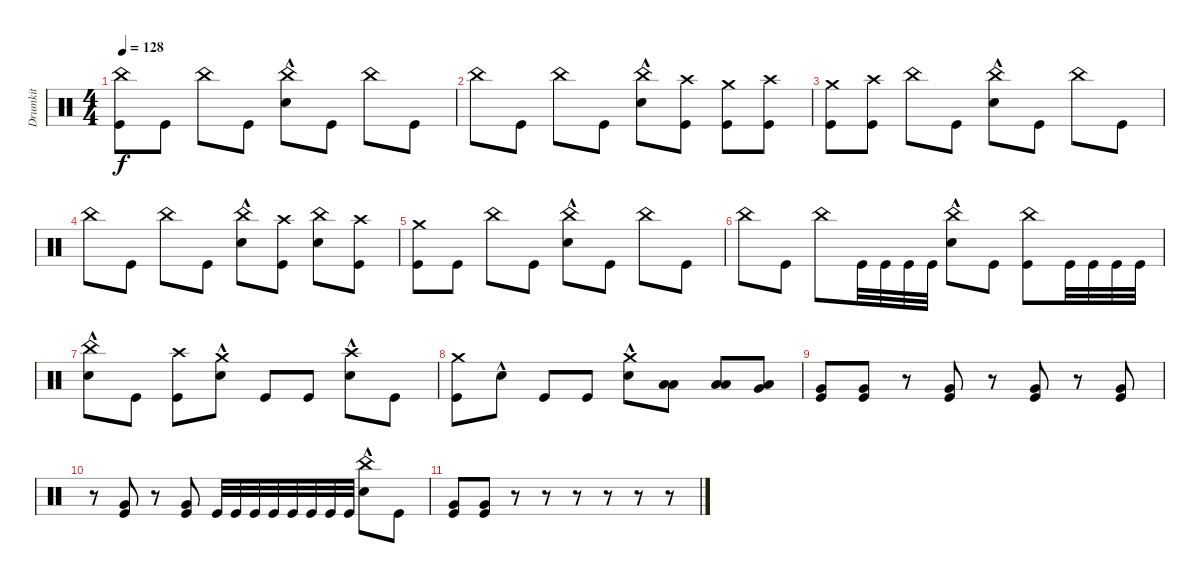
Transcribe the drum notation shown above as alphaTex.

\track ("Drumkit" "Drumkit") {instrument percussion}
\staff {score}
\articulation defaults
\ts (4 4)
\tempo 128
\clef neutral
\ks c
("Kick (hit)" "China (hit)").8{dy f} "Kick (hit)".8 "China (hit)".8 "Kick (hit)".8 ("China (hit)" "Snare (hit) 2"{hac}).8 "Kick (hit)".8 "China (hit)".8 "Kick (hit)".8 |
"China (hit)".8 "Kick (hit)".8 "China (hit)".8 "Kick (hit)".8 ("China (hit)" "Snare (hit) 2"{hac}).8 ("Kick (hit)" "Crash high (hit)").8 ("Kick (hit)" "Crash medium (hit)").8 ("Kick (hit)" "Crash high (hit)").8 |
("Crash medium (hit)" "Kick (hit)").8 ("Kick (hit)" "Crash high (hit)").8 "China (hit)".8 "Kick (hit)".8 ("China (hit)" "Snare (hit) 2"{hac}).8 "Kick (hit)".8 "China (hit)".8 "Kick (hit)".8 |
"China (hit)".8 "Kick (hit)".8 "China (hit)".8 "Kick (hit)".8 ("China (hit)" "Snare (hit) 2"{hac}).8 ("Kick (hit)" "Crash high (hit)").8 ("Snare (hit) 2" "China (hit)").8 ("Kick (hit)" "Crash high (hit)").8 |
("Kick (hit)" "Crash medium (hit)").8 "Kick (hit)".8 "China (hit)".8 "Kick (hit)".8 ("China (hit)" "Snare (hit) 2"{hac}).8 "Kick (hit)".8 "China (hit)".8 "Kick (hit)".8 |
"China (hit)".8 "Kick (hit)".8 "China (hit)".8 "Kick (hit)".32 "Kick (hit)".32 "Kick (hit)".32 "Kick (hit)".32 ("Snare (hit) 2"{hac} "China (hit)").8 "Kick (hit)".8 ("Kick (hit)" "China (hit)").8 "Kick (hit)".32 "Kick (hit)".32 "Kick (hit)".32 "Kick (hit)".32 |
("China (hit)" "Snare (hit) 2"{hac}).8 "Kick (hit)".8 ("Kick (hit)" "Crash high (hit)").8 ("Snare (hit) 2"{hac} "Crash medium (hit)").8 "Kick (hit)".8 "Kick (hit)".8 ("Snare (hit) 2"{hac} "Crash high (hit)").8 "Kick (hit)".8 |
("Kick (hit)" "Crash medium (hit)").8 "Snare (hit) 2"{hac}.8 "Kick (hit)".8 "Kick (hit)".8 ("Snare (hit) 2"{hac} "Crash medium (hit)").8 ("Low Floor Tom (hit)" "Low Tom (hit)").8 ("Low Floor Tom (hit)" "Low Tom (hit)").8 ("Low Floor Tom (hit)" "Very Low Tom (hit)").8 |
("Kick (hit)" "Very Low Tom (hit)").8 ("Kick (hit)" "Very Low Tom (hit)").8 r.8 ("Kick (hit)" "Very Low Tom (hit)").8 r.8 ("Kick (hit)" "Very Low Tom (hit)").8 r.8 ("Kick (hit)" "Very Low Tom (hit)").8 |
r.8 ("Kick (hit)" "Very Low Tom (hit)").8 r.8 ("Kick (hit)" "Very Low Tom (hit)").8 "Kick (hit)".32 "Kick (hit)".32 "Kick (hit)".32 "Kick (hit)".32 "Kick (hit)".32 "Kick (hit)".32 "Kick (hit)".32 "Kick (hit)".32 ("Snare (hit) 2"{hac} "China (hit)").8 "Kick (hit)".8 |
("Kick (hit)" "Very Low Tom (hit)").8 ("Kick (hit)" "Very Low Tom (hit)").8 r.8 r.8 r.8 r.8 r.8 r.8
